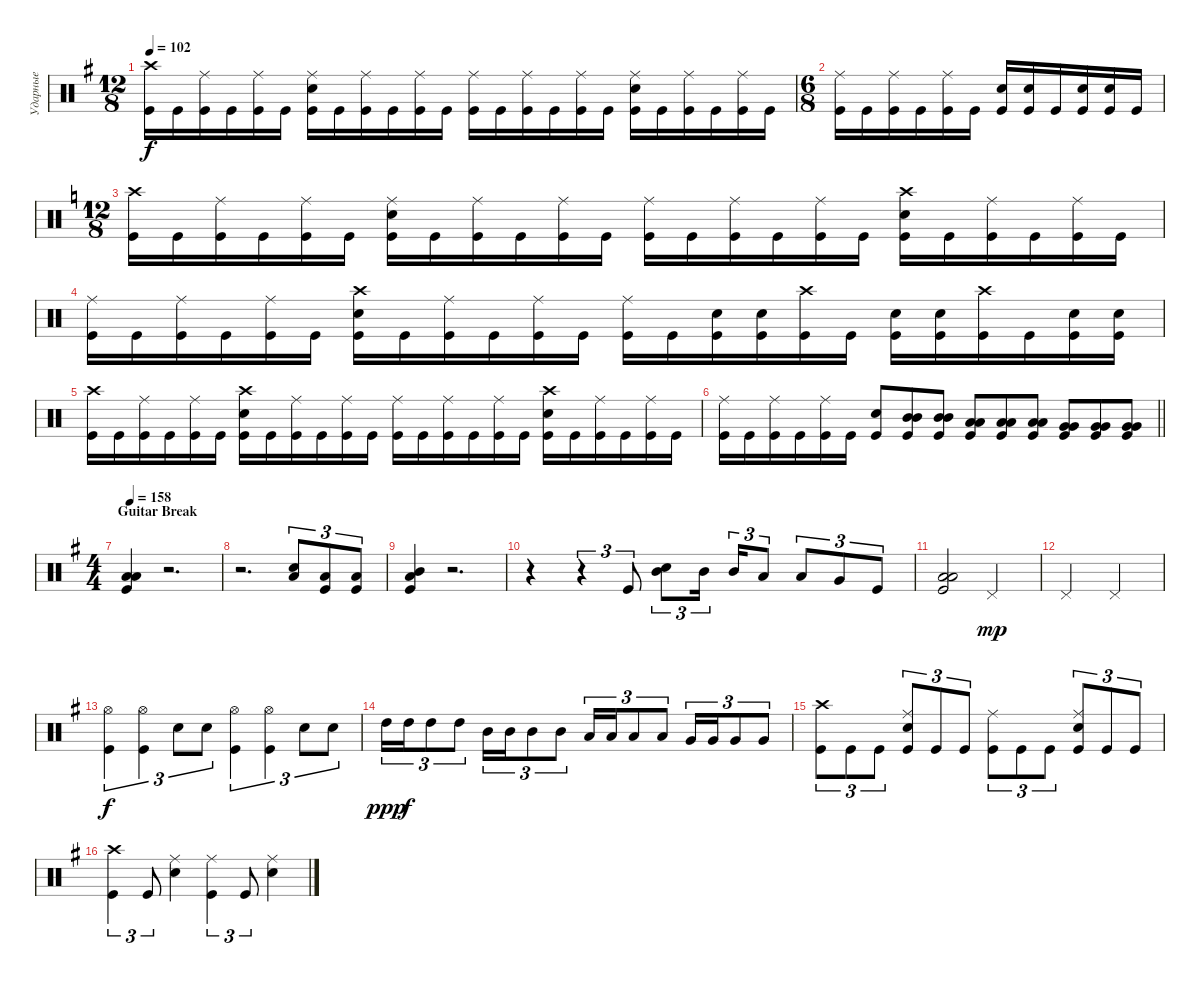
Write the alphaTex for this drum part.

\track ("Ударные" "Ударные") {instrument percussion}
\staff {score}
\articulation defaults
\ts (12 8)
\tempo 102
\clef neutral
\ks eminor
("Kick (hit)" "Crash high (hit)").16{bd 120 dy f} "Kick (hit)".16 ("Kick (hit)" "Ride (middle)").16{bd 120} "Kick (hit)".16 ("Kick (hit)" "Ride (middle)").16{bd 120} "Kick (hit)".16 ("Kick (hit)" "Snare (hit) 2" "Ride (middle)").16{bd 120} "Kick (hit)".16 ("Kick (hit)" "Ride (middle)").16{bd 120} "Kick (hit)".16 ("Kick (hit)" "Ride (middle)").16{bd 120} "Kick (hit)".16 ("Kick (hit)" "Ride (middle)").16{bd 120} "Kick (hit)".16 ("Kick (hit)" "Ride (middle)").16{bd 120} "Kick (hit)".16 ("Kick (hit)" "Ride (middle)").16{bd 120} "Kick (hit)".16 ("Kick (hit)" "Snare (hit) 2" "Ride (middle)").16{bd 120} "Kick (hit)".16 ("Kick (hit)" "Ride (middle)").16{bd 120} "Kick (hit)".16 ("Kick (hit)" "Ride (middle)").16{bd 120} "Kick (hit)".16 |
\ts (6 8)
("Kick (hit)" "Ride (middle)").16{bd 120} "Kick (hit)".16 ("Kick (hit)" "Ride (middle)").16{bd 120} "Kick (hit)".16 ("Kick (hit)" "Ride (middle)").16{bd 120} "Kick (hit)".16 ("Kick (hit)" "Snare (hit) 2").16{bd 120} ("Kick (hit)" "Snare (hit) 2").16{bd 120} "Kick (hit)".16 ("Kick (hit)" "Snare (hit) 2").16{bd 120} ("Kick (hit)" "Snare (hit) 2").16{bd 120} "Kick (hit)".16 |
\ts (12 8)
\ks aminor
("Kick (hit)" "Crash high (hit)").16{bd 120} "Kick (hit)".16 ("Kick (hit)" "Ride (middle)").16{bd 120} "Kick (hit)".16 ("Kick (hit)" "Ride (middle)").16{bd 120} "Kick (hit)".16 ("Kick (hit)" "Snare (hit) 2" "Ride (middle)").16{bd 120} "Kick (hit)".16 ("Kick (hit)" "Ride (middle)").16{bd 120} "Kick (hit)".16 ("Kick (hit)" "Ride (middle)").16{bd 120} "Kick (hit)".16 ("Kick (hit)" "Ride (middle)").16{bd 120} "Kick (hit)".16 ("Kick (hit)" "Ride (middle)").16{bd 120} "Kick (hit)".16 ("Kick (hit)" "Ride (middle)").16{bd 120} "Kick (hit)".16 ("Kick (hit)" "Snare (hit) 2" "Crash high (hit)").16{bd 120} "Kick (hit)".16 ("Kick (hit)" "Ride (middle)").16{bd 120} "Kick (hit)".16 ("Kick (hit)" "Ride (middle)").16{bd 120} "Kick (hit)".16 |
("Kick (hit)" "Ride (middle)").16{bd 120} "Kick (hit)".16 ("Kick (hit)" "Ride (middle)").16{bd 120} "Kick (hit)".16 ("Kick (hit)" "Ride (middle)").16{bd 120} "Kick (hit)".16 ("Kick (hit)" "Snare (hit) 2" "Crash high (hit)").16{bd 120} "Kick (hit)".16 ("Kick (hit)" "Ride (middle)").16{bd 120} "Kick (hit)".16 ("Kick (hit)" "Ride (middle)").16{bd 120} "Kick (hit)".16 ("Kick (hit)" "Ride (middle)").16{bd 120} "Kick (hit)".16 ("Kick (hit)" "Snare (hit) 2").16{bd 120} ("Kick (hit)" "Snare (hit) 2").16{bd 120} ("Kick (hit)" "Crash high (hit)").16{bd 120} "Kick (hit)".16 ("Kick (hit)" "Snare (hit) 2").16{bd 120} ("Kick (hit)" "Snare (hit) 2").16{bd 120} ("Kick (hit)" "Crash high (hit)").16{bd 120} "Kick (hit)".16 ("Kick (hit)" "Snare (hit) 2").16{bd 120} ("Kick (hit)" "Snare (hit) 2").16{bd 120} |
("Kick (hit)" "Crash high (hit)").16{bd 120} "Kick (hit)".16 ("Kick (hit)" "Ride (middle)").16{bd 120} "Kick (hit)".16 ("Kick (hit)" "Ride (middle)").16{bd 120} "Kick (hit)".16 ("Kick (hit)" "Snare (hit) 2" "Crash high (hit)").16{bd 120} "Kick (hit)".16 ("Kick (hit)" "Ride (middle)").16{bd 120} "Kick (hit)".16 ("Kick (hit)" "Ride (middle)").16{bd 120} "Kick (hit)".16 ("Kick (hit)" "Ride (middle)").16{bd 120} "Kick (hit)".16 ("Kick (hit)" "Ride (middle)").16{bd 120} "Kick (hit)".16 ("Kick (hit)" "Ride (middle)").16{bd 120} "Kick (hit)".16 ("Kick (hit)" "Snare (hit) 2" "Crash high (hit)").16{bd 120} "Kick (hit)".16 ("Kick (hit)" "Ride (middle)").16{bd 120} "Kick (hit)".16 ("Kick (hit)" "Ride (middle)").16{bd 120} "Kick (hit)".16 |
\barLineRight lightlight
("Kick (hit)" "Ride (middle)").16{bd 120} "Kick (hit)".16 ("Kick (hit)" "Ride (middle)").16{bd 120} "Kick (hit)".16 ("Kick (hit)" "Ride (middle)").16{bd 120} "Kick (hit)".16 ("Kick (hit)" "Snare (hit) 2").8{bd 60} ("Mid Tom (hit)" "Mid Tom (hit)" "Kick (hit)").8{bd 60} ("Mid Tom (hit)" "Mid Tom (hit)" "Kick (hit)").8{bd 60} ("Low Tom (hit)" "Low Tom (hit)" "Kick (hit)").8{bd 60} ("Low Tom (hit)" "Low Tom (hit)" "Kick (hit)").8{bd 60} ("Low Tom (hit)" "Low Tom (hit)" "Kick (hit)").8{bd 120} ("Very Low Tom (hit)" "Very Low Tom (hit)" "Kick (hit)").8{bd 120} ("Very Low Tom (hit)" "Very Low Tom (hit)" "Kick (hit)").8{bd 120} ("Very Low Tom (hit)" "Very Low Tom (hit)" "Kick (hit)").8{bd 120} |
\ts (4 4)
\section ("" "Guitar Break")
\tempo 158
\ks eminor
("Kick (hit)" "Low Floor Tom (hit)" "Low Floor Tom (hit)").4{bd 120} r.2{d} |
r.2{d} ("Low Floor Tom (hit)" "Snare (hit) 2").8{tu (3 2) bu 120} ("Kick (hit)" "Low Floor Tom (hit)").8{tu (3 2)} ("Kick (hit)" "Low Floor Tom (hit)").8{tu (3 2)} |
("Mid Tom (hit)" "Low Floor Tom (hit)" "Kick (hit)").4{bd 120} r.2{d} |
r.4 r.4{tu (3 2)} "Kick (hit)".8{tu (3 2)} ("Snare (hit) 2" "Mid Tom (hit)").8{tu (3 2) bd 240} "Mid Tom (hit)".16{tu (3 2) beam splitsecondary} "Mid Tom (hit)".16{tu (3 2)} "Low Tom (hit)".8{tu (3 2)} "Low Tom (hit)".8{tu (3 2)} "Very Low Tom (hit)".8{tu (3 2)} "Kick (hit)".8{tu (3 2)} |
("Kick (hit)" "Low Floor Tom (hit)" "Low Floor Tom (hit)").2{bd 120} "Pedal Hi-Hat (hit)".2{dy mp} |
"Pedal Hi-Hat (hit)".2 "Pedal Hi-Hat (hit)".2 |
("Kick (hit)" "Hi-Hat (open)").4{tu (3 2) dy f} ("Kick (hit)" "Hi-Hat (open)").4{tu (3 2)} "Snare (hit) 2".8{tu (3 2)} "Snare (hit) 2".8{tu (3 2)} ("Kick (hit)" "Hi-Hat (open)").4{tu (3 2)} ("Kick (hit)" "Hi-Hat (open)").4{tu (3 2)} "Snare (hit) 2".8{tu (3 2)} "Snare (hit) 2".8{tu (3 2)} |
"High Tom (hit)".16{tu (3 2) dy ppp} "High Tom (hit)".16{tu (3 2) dy f} "High Tom (hit)".8{tu (3 2)} "High Tom (hit)".8{tu (3 2)} "Mid Tom (hit)".16{tu (3 2)} "Mid Tom (hit)".16{tu (3 2)} "Mid Tom (hit)".8{tu (3 2)} "Mid Tom (hit)".8{tu (3 2)} "Low Tom (hit)".16{tu (3 2)} "Low Tom (hit)".16{tu (3 2)} "Low Tom (hit)".8{tu (3 2)} "Low Tom (hit)".8{tu (3 2)} "Very Low Tom (hit)".16{tu (3 2)} "Very Low Tom (hit)".16{tu (3 2)} "Very Low Tom (hit)".8{tu (3 2)} "Very Low Tom (hit)".8{tu (3 2)} |
("Kick (hit)" "Crash high (hit)").8{tu (3 2) bd 120} "Kick (hit)".8{tu (3 2)} "Kick (hit)".8{tu (3 2)} ("Kick (hit)" "Snare (hit) 2" "Ride (middle)").8{tu (3 2) bd 120} "Kick (hit)".8{tu (3 2)} "Kick (hit)".8{tu (3 2)} ("Kick (hit)" "Ride (middle)").8{tu (3 2) bd 120} "Kick (hit)".8{tu (3 2)} "Kick (hit)".8{tu (3 2)} ("Kick (hit)" "Snare (hit) 2" "Ride (middle)").8{tu (3 2) bd 120} "Kick (hit)".8{tu (3 2)} "Kick (hit)".8{tu (3 2)} |
("Kick (hit)" "Crash high (hit)").4{tu (3 2) bd 120} "Kick (hit)".8{tu (3 2)} ("Snare (hit) 2" "Ride (middle)").4{bd 120} ("Kick (hit)" "Ride (middle)").4{tu (3 2) bd 120} "Kick (hit)".8{tu (3 2)} ("Snare (hit) 2" "Ride (middle)").4{bd 120}
